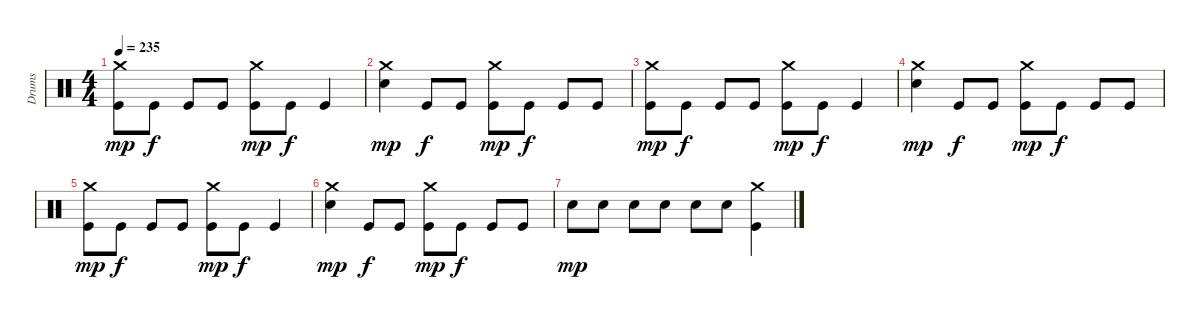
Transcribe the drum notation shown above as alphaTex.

\track ("Drums" "Drums") {instrument percussion}
\staff {score}
\articulation defaults
\ts (4 4)
\tempo 235
\clef neutral
\ks c
("Crash medium (hit)" "Kick (hit)").8{dy mp} "Kick (hit)".8{dy f} "Kick (hit)".8 "Kick (hit)".8 ("Crash medium (hit)" "Kick (hit)").8{dy mp} "Kick (hit)".8{dy f} "Kick (hit)".4 |
("Crash medium (hit)" "Snare (hit) 2").4{dy mp} "Kick (hit)".8{dy f} "Kick (hit)".8 ("Crash medium (hit)" "Kick (hit)").8{dy mp} "Kick (hit)".8{dy f} "Kick (hit)".8 "Kick (hit)".8 |
("Crash medium (hit)" "Kick (hit)").8{dy mp} "Kick (hit)".8{dy f} "Kick (hit)".8 "Kick (hit)".8 ("Crash medium (hit)" "Kick (hit)").8{dy mp} "Kick (hit)".8{dy f} "Kick (hit)".4 |
("Crash medium (hit)" "Snare (hit) 2").4{dy mp} "Kick (hit)".8{dy f} "Kick (hit)".8 ("Crash medium (hit)" "Kick (hit)").8{dy mp} "Kick (hit)".8{dy f} "Kick (hit)".8 "Kick (hit)".8 |
("Crash medium (hit)" "Kick (hit)").8{dy mp} "Kick (hit)".8{dy f} "Kick (hit)".8 "Kick (hit)".8 ("Crash medium (hit)" "Kick (hit)").8{dy mp} "Kick (hit)".8{dy f} "Kick (hit)".4 |
("Crash medium (hit)" "Snare (hit) 2").4{dy mp} "Kick (hit)".8{dy f} "Kick (hit)".8 ("Crash medium (hit)" "Kick (hit)").8{dy mp} "Kick (hit)".8{dy f} "Kick (hit)".8 "Kick (hit)".8 |
"Snare (hit) 2".8{dy mp} "Snare (hit) 2".8 "Snare (hit) 2".8 "Snare (hit) 2".8 "Snare (hit) 2".8 "Snare (hit) 2".8 ("Crash medium (hit)" "Kick (hit)").4
